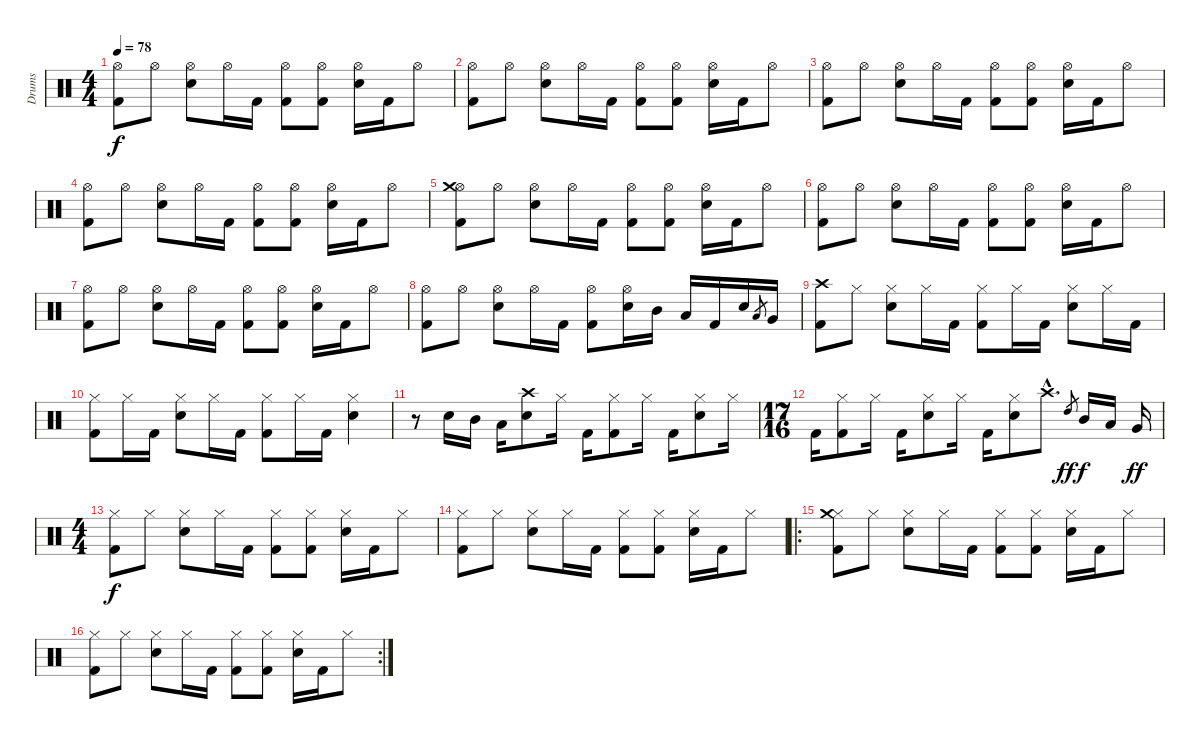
\track ("Drums" "Drums") {instrument percussion}
\staff {score}
\articulation defaults
\ts (4 4)
\tempo 78
\clef neutral
\ks c
("Hi-Hat (open)" "Kick (hit) 2").8{dy f} "Hi-Hat (open)".8 ("Hi-Hat (open)" "Electric Snare (hit)").8 "Hi-Hat (open)".16 "Kick (hit) 2".16 ("Hi-Hat (open)" "Kick (hit) 2").8 ("Hi-Hat (open)" "Kick (hit) 2").8 ("Hi-Hat (open)" "Electric Snare (hit)").16 "Kick (hit) 2".16 "Hi-Hat (open)".8 |
("Hi-Hat (open)" "Kick (hit) 2").8 "Hi-Hat (open)".8 ("Hi-Hat (open)" "Electric Snare (hit)").8 "Hi-Hat (open)".16 "Kick (hit) 2".16 ("Hi-Hat (open)" "Kick (hit) 2").8 ("Hi-Hat (open)" "Kick (hit) 2").8 ("Hi-Hat (open)" "Electric Snare (hit)").16 "Kick (hit) 2".16 "Hi-Hat (open)".8 |
("Hi-Hat (open)" "Kick (hit) 2").8 "Hi-Hat (open)".8 ("Hi-Hat (open)" "Electric Snare (hit)").8 "Hi-Hat (open)".16 "Kick (hit) 2".16 ("Hi-Hat (open)" "Kick (hit) 2").8 ("Hi-Hat (open)" "Kick (hit) 2").8 ("Hi-Hat (open)" "Electric Snare (hit)").16 "Kick (hit) 2".16 "Hi-Hat (open)".8 |
("Hi-Hat (open)" "Kick (hit) 2").8 "Hi-Hat (open)".8 ("Hi-Hat (open)" "Electric Snare (hit)").8 "Hi-Hat (open)".16 "Kick (hit) 2".16 ("Hi-Hat (open)" "Kick (hit) 2").8 ("Hi-Hat (open)" "Kick (hit) 2").8 ("Hi-Hat (open)" "Electric Snare (hit)").16 "Kick (hit) 2".16 "Hi-Hat (open)".8 |
("Hi-Hat (open)" "Crash medium (hit)" "Kick (hit) 2").8 "Hi-Hat (open)".8 ("Hi-Hat (open)" "Electric Snare (hit)").8 "Hi-Hat (open)".16 "Kick (hit) 2".16 ("Hi-Hat (open)" "Kick (hit) 2").8 ("Hi-Hat (open)" "Kick (hit) 2").8 ("Hi-Hat (open)" "Electric Snare (hit)").16 "Kick (hit) 2".16 "Hi-Hat (open)".8 |
("Hi-Hat (open)" "Kick (hit) 2").8 "Hi-Hat (open)".8 ("Hi-Hat (open)" "Electric Snare (hit)").8 "Hi-Hat (open)".16 "Kick (hit) 2".16 ("Hi-Hat (open)" "Kick (hit) 2").8 ("Hi-Hat (open)" "Kick (hit) 2").8 ("Hi-Hat (open)" "Electric Snare (hit)").16 "Kick (hit) 2".16 "Hi-Hat (open)".8 |
("Hi-Hat (open)" "Kick (hit) 2").8 "Hi-Hat (open)".8 ("Hi-Hat (open)" "Electric Snare (hit)").8 "Hi-Hat (open)".16 "Kick (hit) 2".16 ("Hi-Hat (open)" "Kick (hit) 2").8 ("Hi-Hat (open)" "Kick (hit) 2").8 ("Hi-Hat (open)" "Electric Snare (hit)").16 "Kick (hit) 2".16 "Hi-Hat (open)".8 |
("Hi-Hat (open)" "Kick (hit) 2").8 "Hi-Hat (open)".8 ("Hi-Hat (open)" "Electric Snare (hit)").8 "Hi-Hat (open)".16 "Kick (hit) 2".16 ("Hi-Hat (open)" "Kick (hit) 2").8 ("Hi-Hat (open)" "Electric Snare (hit)").16 "Mid Tom (hit)".16 "Low Tom (hit)".16 "Kick (hit) 2".16 "Electric Snare (hit)".16 "Low Tom (hit)".8{gr} "Very Low Tom (hit)".16 |
("Crash high (hit)" "Kick (hit) 2").8 "Hi-Hat (closed)".8 ("Hi-Hat (closed)" "Electric Snare (hit)").8 "Hi-Hat (closed)".16 "Kick (hit) 2".16 ("Hi-Hat (closed)" "Kick (hit) 2").8 "Hi-Hat (closed)".16 "Kick (hit) 2".16 ("Hi-Hat (closed)" "Electric Snare (hit)").8 "Hi-Hat (closed)".16 "Kick (hit) 2".16 |
("Hi-Hat (closed)" "Kick (hit) 2").8 "Hi-Hat (closed)".16 "Kick (hit) 2".16 ("Hi-Hat (closed)" "Electric Snare (hit)").8 "Hi-Hat (closed)".16 "Kick (hit) 2".16 ("Hi-Hat (closed)" "Kick (hit) 2").8 "Hi-Hat (closed)".16 "Kick (hit) 2".16 ("Hi-Hat (closed)" "Electric Snare (hit)").4 |
r.8 "Electric Snare (hit)".16 "Mid Tom (hit)".16 "Low Tom (hit)".16 ("Crash high (hit)" "Electric Snare (hit)").8 "Hi-Hat (closed)".16 "Kick (hit) 2".16 ("Hi-Hat (closed)" "Kick (hit) 2").8 "Hi-Hat (closed)".16 "Kick (hit) 2".16 ("Hi-Hat (closed)" "Electric Snare (hit)").8 "Hi-Hat (closed)".16 |
\ts (17 16)
"Kick (hit) 2".16 ("Hi-Hat (closed)" "Kick (hit) 2").8 "Hi-Hat (closed)".16 "Kick (hit) 2".16 ("Hi-Hat (closed)" "Electric Snare (hit)").8 "Hi-Hat (closed)".16 "Kick (hit) 2".16 ("Hi-Hat (closed)" "Electric Snare (hit)").8 "Crash high (hit)"{hac}.8{d} "High Tom (hit)".8{gr dy ff} "Mid Tom (hit)".16{dy f} "Low Tom (hit)".16 "Very Low Tom (hit)".16{dy ff} |
\ts (4 4)
("Hi-Hat (closed)" "Kick (hit) 2").8{dy f} "Hi-Hat (closed)".8 ("Hi-Hat (closed)" "Electric Snare (hit)").8 "Hi-Hat (closed)".16 "Kick (hit) 2".16 ("Hi-Hat (closed)" "Kick (hit) 2").8 ("Hi-Hat (closed)" "Kick (hit) 2").8 ("Hi-Hat (closed)" "Electric Snare (hit)").16 "Kick (hit) 2".16 "Hi-Hat (closed)".8 |
("Hi-Hat (closed)" "Kick (hit) 2").8 "Hi-Hat (closed)".8 ("Hi-Hat (closed)" "Electric Snare (hit)").8 "Hi-Hat (closed)".16 "Kick (hit) 2".16 ("Hi-Hat (closed)" "Kick (hit) 2").8 ("Hi-Hat (closed)" "Kick (hit) 2").8 ("Hi-Hat (closed)" "Electric Snare (hit)").16 "Kick (hit) 2".16 "Hi-Hat (closed)".8 |
\ro
("Hi-Hat (closed)" "Crash medium (hit)" "Kick (hit) 2").8 "Hi-Hat (closed)".8 ("Hi-Hat (closed)" "Electric Snare (hit)").8 "Hi-Hat (closed)".16 "Kick (hit) 2".16 ("Hi-Hat (closed)" "Kick (hit) 2").8 ("Hi-Hat (closed)" "Kick (hit) 2").8 ("Hi-Hat (closed)" "Electric Snare (hit)").16 "Kick (hit) 2".16 "Hi-Hat (closed)".8 |
\rc 2
("Hi-Hat (closed)" "Kick (hit) 2").8 "Hi-Hat (closed)".8 ("Hi-Hat (closed)" "Electric Snare (hit)").8 "Hi-Hat (closed)".16 "Kick (hit) 2".16 ("Hi-Hat (closed)" "Kick (hit) 2").8 ("Hi-Hat (closed)" "Kick (hit) 2").8 ("Hi-Hat (closed)" "Electric Snare (hit)").16 "Kick (hit) 2".16 "Hi-Hat (closed)".8
